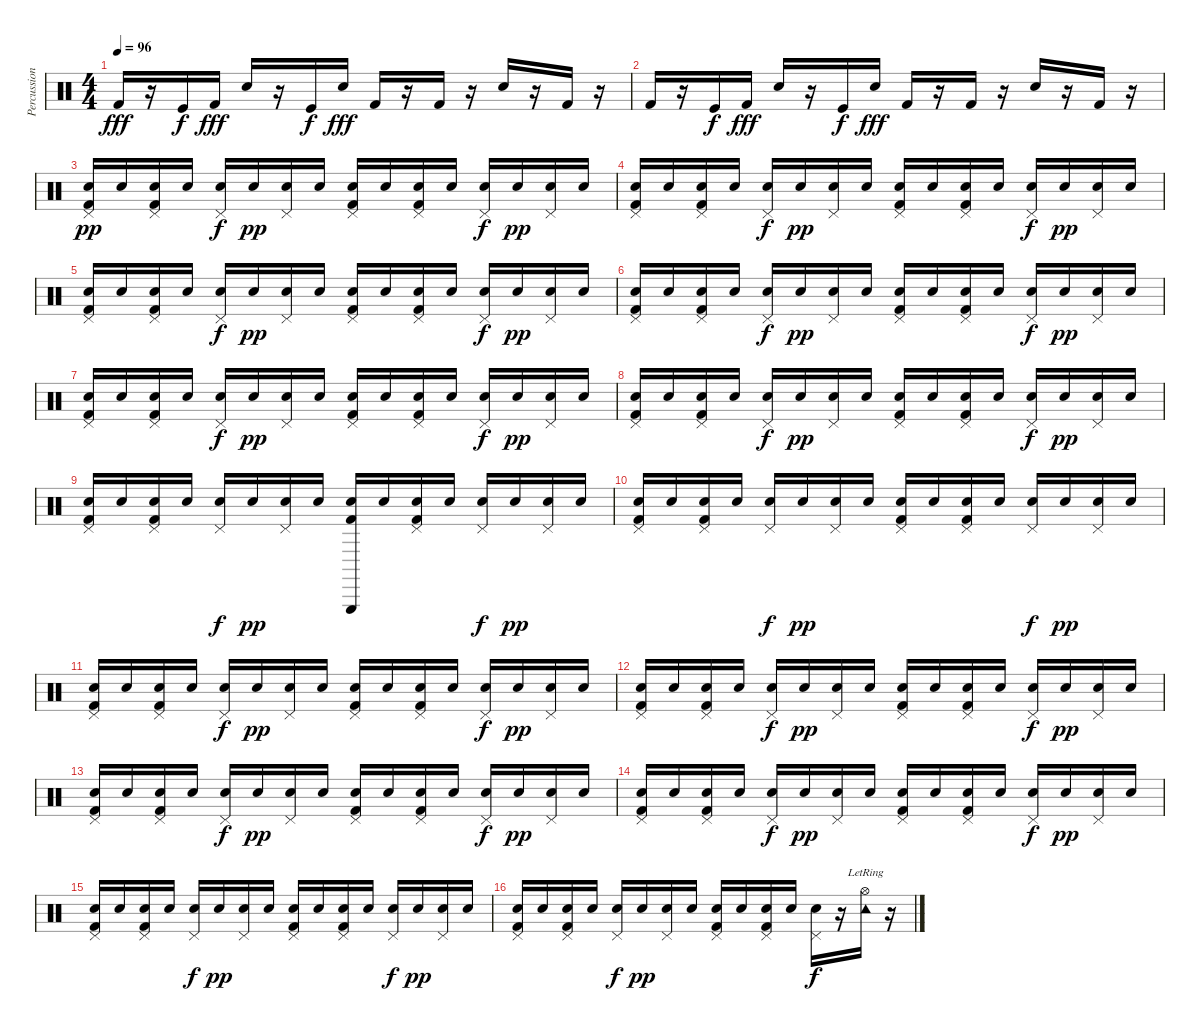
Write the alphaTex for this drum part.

\track ("Percussions" "Percussion") {instrument percussion}
\staff {score}
\articulation defaults
\ts (4 4)
\tempo 96
\clef neutral
\ks c "Kick (hit) 2".16{dy fff volume 6}
r.16 "Kick (hit)".16{dy f} "Kick (hit) 2".16{dy fff} "Electric Snare (hit)".16 r.16 "Kick (hit)".16{dy f} "Electric Snare (hit)".16{dy fff} "Kick (hit) 2".16 r.16 "Kick (hit) 2".16 r.16 "Electric Snare (hit)".16 r.16 "Kick (hit) 2".16 r.16 |
"Kick (hit) 2".16 r.16 "Kick (hit)".16{dy f} "Kick (hit) 2".16{dy fff} "Electric Snare (hit)".16 r.16 "Kick (hit)".16{dy f} "Electric Snare (hit)".16{dy fff} "Kick (hit) 2".16 r.16 "Kick (hit) 2".16 r.16 "Electric Snare (hit)".16 r.16 "Kick (hit) 2".16{volume 14} r.16 |
("Pedal Hi-Hat (hit)" "Snare (hit) 2" "Kick (hit) 2").16{dy pp} "Snare (hit) 2".16 ("Pedal Hi-Hat (hit)" "Snare (hit) 2" "Kick (hit) 2").16 "Snare (hit) 2".16 ("Pedal Hi-Hat (hit)" "Electric Snare (hit)").16{dy f} "Snare (hit) 2".16{dy pp} ("Pedal Hi-Hat (hit)" "Snare (hit) 2").16 "Snare (hit) 2".16 ("Pedal Hi-Hat (hit)" "Snare (hit) 2" "Kick (hit) 2").16 "Snare (hit) 2".16 ("Pedal Hi-Hat (hit)" "Snare (hit) 2" "Kick (hit) 2").16 "Snare (hit) 2".16 ("Pedal Hi-Hat (hit)" "Electric Snare (hit)").16{dy f} "Snare (hit) 2".16{dy pp} ("Pedal Hi-Hat (hit)" "Snare (hit) 2").16 "Snare (hit) 2".16 |
("Pedal Hi-Hat (hit)" "Snare (hit) 2" "Kick (hit) 2").16 "Snare (hit) 2".16 ("Pedal Hi-Hat (hit)" "Snare (hit) 2" "Kick (hit) 2").16 "Snare (hit) 2".16 ("Pedal Hi-Hat (hit)" "Electric Snare (hit)").16{dy f} "Snare (hit) 2".16{dy pp} ("Pedal Hi-Hat (hit)" "Snare (hit) 2").16 "Snare (hit) 2".16 ("Pedal Hi-Hat (hit)" "Snare (hit) 2" "Kick (hit) 2").16 "Snare (hit) 2".16 ("Pedal Hi-Hat (hit)" "Snare (hit) 2" "Kick (hit) 2").16 "Snare (hit) 2".16 ("Pedal Hi-Hat (hit)" "Electric Snare (hit)").16{dy f} "Snare (hit) 2".16{dy pp} ("Pedal Hi-Hat (hit)" "Snare (hit) 2").16 "Snare (hit) 2".16 |
("Pedal Hi-Hat (hit)" "Snare (hit) 2" "Kick (hit) 2").16 "Snare (hit) 2".16 ("Pedal Hi-Hat (hit)" "Snare (hit) 2" "Kick (hit) 2").16 "Snare (hit) 2".16 ("Pedal Hi-Hat (hit)" "Electric Snare (hit)").16{dy f} "Snare (hit) 2".16{dy pp} ("Pedal Hi-Hat (hit)" "Snare (hit) 2").16 "Snare (hit) 2".16 ("Pedal Hi-Hat (hit)" "Snare (hit) 2" "Kick (hit) 2").16 "Snare (hit) 2".16 ("Pedal Hi-Hat (hit)" "Snare (hit) 2" "Kick (hit) 2").16 "Snare (hit) 2".16 ("Pedal Hi-Hat (hit)" "Electric Snare (hit)").16{dy f} "Snare (hit) 2".16{dy pp} ("Pedal Hi-Hat (hit)" "Snare (hit) 2").16 "Snare (hit) 2".16 |
("Pedal Hi-Hat (hit)" "Snare (hit) 2" "Kick (hit) 2").16 "Snare (hit) 2".16 ("Pedal Hi-Hat (hit)" "Snare (hit) 2" "Kick (hit) 2").16 "Snare (hit) 2".16 ("Pedal Hi-Hat (hit)" "Electric Snare (hit)").16{dy f} "Snare (hit) 2".16{dy pp} ("Pedal Hi-Hat (hit)" "Snare (hit) 2").16 "Snare (hit) 2".16 ("Pedal Hi-Hat (hit)" "Snare (hit) 2" "Kick (hit) 2").16 "Snare (hit) 2".16 ("Pedal Hi-Hat (hit)" "Snare (hit) 2" "Kick (hit) 2").16 "Snare (hit) 2".16 ("Pedal Hi-Hat (hit)" "Electric Snare (hit)").16{dy f} "Snare (hit) 2".16{dy pp} ("Pedal Hi-Hat (hit)" "Snare (hit) 2").16 "Snare (hit) 2".16 |
("Pedal Hi-Hat (hit)" "Snare (hit) 2" "Kick (hit) 2").16 "Snare (hit) 2".16 ("Pedal Hi-Hat (hit)" "Snare (hit) 2" "Kick (hit) 2").16 "Snare (hit) 2".16 ("Pedal Hi-Hat (hit)" "Electric Snare (hit)").16{dy f} "Snare (hit) 2".16{dy pp} ("Pedal Hi-Hat (hit)" "Snare (hit) 2").16 "Snare (hit) 2".16 ("Pedal Hi-Hat (hit)" "Snare (hit) 2" "Kick (hit) 2").16 "Snare (hit) 2".16 ("Pedal Hi-Hat (hit)" "Snare (hit) 2" "Kick (hit) 2").16 "Snare (hit) 2".16 ("Pedal Hi-Hat (hit)" "Electric Snare (hit)").16{dy f} "Snare (hit) 2".16{dy pp} ("Pedal Hi-Hat (hit)" "Snare (hit) 2").16 "Snare (hit) 2".16 |
("Pedal Hi-Hat (hit)" "Snare (hit) 2" "Kick (hit) 2").16 "Snare (hit) 2".16 ("Pedal Hi-Hat (hit)" "Snare (hit) 2" "Kick (hit) 2").16 "Snare (hit) 2".16 ("Pedal Hi-Hat (hit)" "Electric Snare (hit)").16{dy f} "Snare (hit) 2".16{dy pp} ("Pedal Hi-Hat (hit)" "Snare (hit) 2").16 "Snare (hit) 2".16 ("Pedal Hi-Hat (hit)" "Snare (hit) 2" "Kick (hit) 2").16 "Snare (hit) 2".16 ("Pedal Hi-Hat (hit)" "Snare (hit) 2" "Kick (hit) 2").16 "Snare (hit) 2".16 ("Pedal Hi-Hat (hit)" "Electric Snare (hit)").16{dy f} "Snare (hit) 2".16{dy pp} ("Pedal Hi-Hat (hit)" "Snare (hit) 2").16 "Snare (hit) 2".16 |
("Pedal Hi-Hat (hit)" "Snare (hit) 2" "Kick (hit) 2").16 "Snare (hit) 2".16 ("Pedal Hi-Hat (hit)" "Snare (hit) 2" "Kick (hit) 2").16 "Snare (hit) 2".16 ("Pedal Hi-Hat (hit)" "Electric Snare (hit)").16{dy f} "Snare (hit) 2".16{dy pp} ("Pedal Hi-Hat (hit)" "Snare (hit) 2").16 "Snare (hit) 2".16 ("Triangle (hit)" "Snare (hit) 2" "Kick (hit) 2").16 "Snare (hit) 2".16 ("Pedal Hi-Hat (hit)" "Snare (hit) 2" "Kick (hit) 2").16 "Snare (hit) 2".16 ("Pedal Hi-Hat (hit)" "Electric Snare (hit)").16{dy f} "Snare (hit) 2".16{dy pp} ("Pedal Hi-Hat (hit)" "Snare (hit) 2").16 "Snare (hit) 2".16 |
("Pedal Hi-Hat (hit)" "Snare (hit) 2" "Kick (hit) 2").16 "Snare (hit) 2".16 ("Pedal Hi-Hat (hit)" "Snare (hit) 2" "Kick (hit) 2").16 "Snare (hit) 2".16 ("Pedal Hi-Hat (hit)" "Electric Snare (hit)").16{dy f} "Snare (hit) 2".16{dy pp} ("Pedal Hi-Hat (hit)" "Snare (hit) 2").16 "Snare (hit) 2".16 ("Pedal Hi-Hat (hit)" "Snare (hit) 2" "Kick (hit) 2").16 "Snare (hit) 2".16 ("Pedal Hi-Hat (hit)" "Snare (hit) 2" "Kick (hit) 2").16 "Snare (hit) 2".16 ("Pedal Hi-Hat (hit)" "Electric Snare (hit)").16{dy f} "Snare (hit) 2".16{dy pp} ("Pedal Hi-Hat (hit)" "Snare (hit) 2").16 "Snare (hit) 2".16 |
("Pedal Hi-Hat (hit)" "Snare (hit) 2" "Kick (hit) 2").16 "Snare (hit) 2".16 ("Pedal Hi-Hat (hit)" "Snare (hit) 2" "Kick (hit) 2").16 "Snare (hit) 2".16 ("Pedal Hi-Hat (hit)" "Electric Snare (hit)").16{dy f} "Snare (hit) 2".16{dy pp} ("Pedal Hi-Hat (hit)" "Snare (hit) 2").16 "Snare (hit) 2".16 ("Pedal Hi-Hat (hit)" "Snare (hit) 2" "Kick (hit) 2").16 "Snare (hit) 2".16 ("Pedal Hi-Hat (hit)" "Snare (hit) 2" "Kick (hit) 2").16 "Snare (hit) 2".16 ("Pedal Hi-Hat (hit)" "Electric Snare (hit)").16{dy f} "Snare (hit) 2".16{dy pp} ("Pedal Hi-Hat (hit)" "Snare (hit) 2").16 "Snare (hit) 2".16 |
("Pedal Hi-Hat (hit)" "Snare (hit) 2" "Kick (hit) 2").16 "Snare (hit) 2".16 ("Pedal Hi-Hat (hit)" "Snare (hit) 2" "Kick (hit) 2").16 "Snare (hit) 2".16 ("Pedal Hi-Hat (hit)" "Electric Snare (hit)").16{dy f} "Snare (hit) 2".16{dy pp} ("Pedal Hi-Hat (hit)" "Snare (hit) 2").16 "Snare (hit) 2".16 ("Pedal Hi-Hat (hit)" "Snare (hit) 2" "Kick (hit) 2").16 "Snare (hit) 2".16 ("Pedal Hi-Hat (hit)" "Snare (hit) 2" "Kick (hit) 2").16 "Snare (hit) 2".16 ("Pedal Hi-Hat (hit)" "Electric Snare (hit)").16{dy f} "Snare (hit) 2".16{dy pp} ("Pedal Hi-Hat (hit)" "Snare (hit) 2").16 "Snare (hit) 2".16 |
("Pedal Hi-Hat (hit)" "Snare (hit) 2" "Kick (hit) 2").16 "Snare (hit) 2".16 ("Pedal Hi-Hat (hit)" "Snare (hit) 2" "Kick (hit) 2").16 "Snare (hit) 2".16 ("Pedal Hi-Hat (hit)" "Electric Snare (hit)").16{dy f} "Snare (hit) 2".16{dy pp} ("Pedal Hi-Hat (hit)" "Snare (hit) 2").16 "Snare (hit) 2".16 ("Pedal Hi-Hat (hit)" "Snare (hit) 2" "Kick (hit) 2").16 "Snare (hit) 2".16 ("Pedal Hi-Hat (hit)" "Snare (hit) 2" "Kick (hit) 2").16 "Snare (hit) 2".16 ("Pedal Hi-Hat (hit)" "Electric Snare (hit)").16{dy f} "Snare (hit) 2".16{dy pp} ("Pedal Hi-Hat (hit)" "Snare (hit) 2").16 "Snare (hit) 2".16 |
("Pedal Hi-Hat (hit)" "Snare (hit) 2" "Kick (hit) 2").16 "Snare (hit) 2".16 ("Pedal Hi-Hat (hit)" "Snare (hit) 2" "Kick (hit) 2").16 "Snare (hit) 2".16 ("Pedal Hi-Hat (hit)" "Electric Snare (hit)").16{dy f} "Snare (hit) 2".16{dy pp} ("Pedal Hi-Hat (hit)" "Snare (hit) 2").16 "Snare (hit) 2".16 ("Pedal Hi-Hat (hit)" "Snare (hit) 2" "Kick (hit) 2").16 "Snare (hit) 2".16 ("Pedal Hi-Hat (hit)" "Snare (hit) 2" "Kick (hit) 2").16 "Snare (hit) 2".16 ("Pedal Hi-Hat (hit)" "Electric Snare (hit)").16{dy f} "Snare (hit) 2".16{dy pp} ("Pedal Hi-Hat (hit)" "Snare (hit) 2").16 "Snare (hit) 2".16 |
("Pedal Hi-Hat (hit)" "Snare (hit) 2" "Kick (hit) 2").16 "Snare (hit) 2".16 ("Pedal Hi-Hat (hit)" "Snare (hit) 2" "Kick (hit) 2").16 "Snare (hit) 2".16 ("Pedal Hi-Hat (hit)" "Electric Snare (hit)").16{dy f} "Snare (hit) 2".16{dy pp} ("Pedal Hi-Hat (hit)" "Snare (hit) 2").16 "Snare (hit) 2".16 ("Pedal Hi-Hat (hit)" "Snare (hit) 2" "Kick (hit) 2").16 "Snare (hit) 2".16 ("Pedal Hi-Hat (hit)" "Snare (hit) 2" "Kick (hit) 2").16 "Snare (hit) 2".16 ("Pedal Hi-Hat (hit)" "Electric Snare (hit)").16{dy f} "Snare (hit) 2".16{dy pp} ("Pedal Hi-Hat (hit)" "Snare (hit) 2").16 "Snare (hit) 2".16 |
("Pedal Hi-Hat (hit)" "Snare (hit) 2" "Kick (hit) 2").16 "Snare (hit) 2".16 ("Pedal Hi-Hat (hit)" "Snare (hit) 2" "Kick (hit) 2").16 "Snare (hit) 2".16 ("Pedal Hi-Hat (hit)" "Electric Snare (hit)").16{dy f} "Snare (hit) 2".16{dy pp} ("Pedal Hi-Hat (hit)" "Snare (hit) 2").16 "Snare (hit) 2".16 ("Pedal Hi-Hat (hit)" "Snare (hit) 2" "Kick (hit) 2").16 "Snare (hit) 2".16 ("Pedal Hi-Hat (hit)" "Snare (hit) 2" "Kick (hit) 2").16 "Snare (hit) 2".16 ("Pedal Hi-Hat (hit)" "Electric Snare (hit)").16{dy f} r.16 ("Hi-Hat (open)"{lr} "Tambourine (hit)").16 r.16
